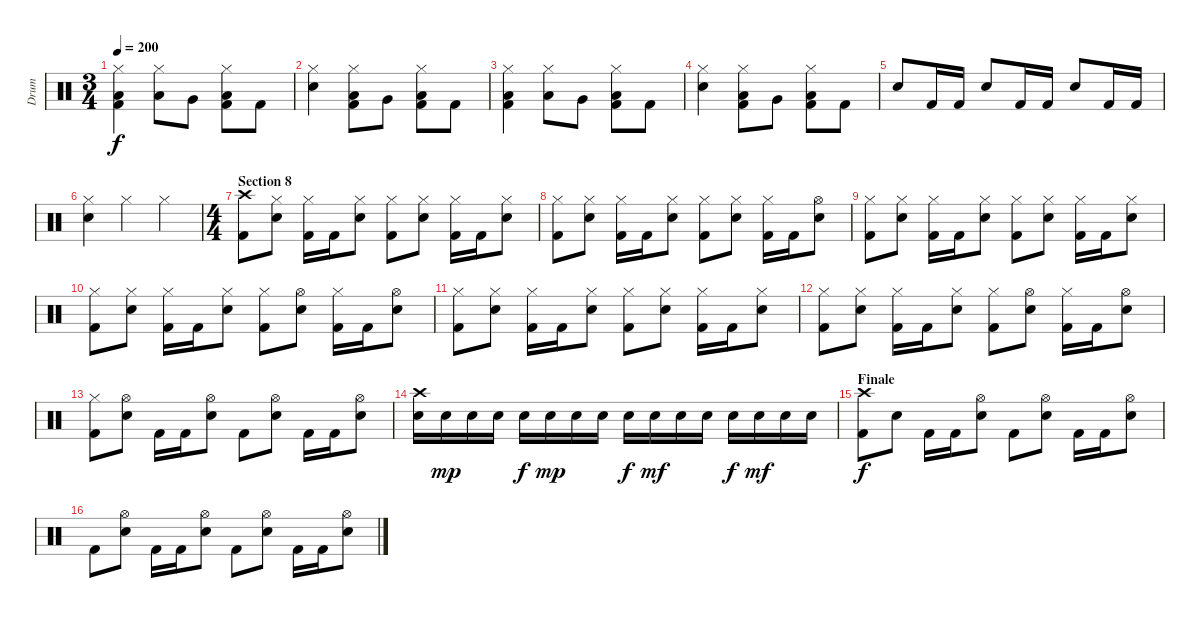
\track ("Drum" "Drum") {instrument percussion}
\staff {score}
\articulation defaults
\ts (3 4)
\tempo 200
\clef neutral
\ks c
("Hi-Hat (closed)" "Low Floor Tom (hit)" "Kick (hit) 2").4{dy f} ("Hi-Hat (closed)" "Low Tom (hit)").8 "Very Low Tom (hit)".8 ("Hi-Hat (closed)" "Low Floor Tom (hit)" "Kick (hit) 2").8 "Kick (hit) 2".8 |
("Hi-Hat (closed)" "Electric Snare (hit)").4 ("Hi-Hat (closed)" "Low Tom (hit)" "Kick (hit) 2").8 "Very Low Tom (hit)".8 ("Hi-Hat (closed)" "Low Floor Tom (hit)" "Kick (hit) 2").8 "Kick (hit) 2".8 |
("Hi-Hat (closed)" "Low Floor Tom (hit)" "Kick (hit) 2").4 ("Hi-Hat (closed)" "Low Tom (hit)").8 "Very Low Tom (hit)".8 ("Hi-Hat (closed)" "Low Floor Tom (hit)" "Kick (hit) 2").8 "Kick (hit) 2".8 |
("Hi-Hat (closed)" "Electric Snare (hit)").4 ("Hi-Hat (closed)" "Low Tom (hit)" "Kick (hit) 2").8 "Very Low Tom (hit)".8 ("Hi-Hat (closed)" "Low Floor Tom (hit)" "Kick (hit) 2").8 "Kick (hit) 2".8 |
"Electric Snare (hit)".8 "Kick (hit) 2".16 "Kick (hit) 2".16 "Electric Snare (hit)".8 "Kick (hit) 2".16 "Kick (hit) 2".16 "Electric Snare (hit)".8 "Kick (hit) 2".16 "Kick (hit) 2".16 |
("Hi-Hat (closed)" "Electric Snare (hit)").4 "Hi-Hat (closed)".4 "Hi-Hat (closed)".4 |
\ts (4 4)
\section ("" "Section 8")
("Crash high (hit)" "Kick (hit) 2").8 ("Hi-Hat (closed)" "Electric Snare (hit)").8 ("Hi-Hat (closed)" "Kick (hit) 2").16 "Kick (hit) 2".16 ("Hi-Hat (closed)" "Electric Snare (hit)").8 ("Hi-Hat (closed)" "Kick (hit) 2").8 ("Hi-Hat (closed)" "Electric Snare (hit)").8 ("Hi-Hat (closed)" "Kick (hit) 2").16 "Kick (hit) 2".16 ("Hi-Hat (closed)" "Electric Snare (hit)").8 |
("Hi-Hat (closed)" "Kick (hit) 2").8 ("Hi-Hat (closed)" "Electric Snare (hit)").8 ("Hi-Hat (closed)" "Kick (hit) 2").16 "Kick (hit) 2".16 ("Hi-Hat (closed)" "Electric Snare (hit)").8 ("Hi-Hat (closed)" "Kick (hit) 2").8 ("Hi-Hat (closed)" "Electric Snare (hit)").8 ("Hi-Hat (closed)" "Kick (hit) 2").16 "Kick (hit) 2".16 ("Hi-Hat (open)" "Electric Snare (hit)").8 |
("Hi-Hat (closed)" "Kick (hit) 2").8 ("Hi-Hat (closed)" "Electric Snare (hit)").8 ("Hi-Hat (closed)" "Kick (hit) 2").16 "Kick (hit) 2".16 ("Hi-Hat (closed)" "Electric Snare (hit)").8 ("Hi-Hat (closed)" "Kick (hit) 2").8 ("Hi-Hat (closed)" "Electric Snare (hit)").8 ("Hi-Hat (closed)" "Kick (hit) 2").16 "Kick (hit) 2".16 ("Hi-Hat (closed)" "Electric Snare (hit)").8 |
("Hi-Hat (closed)" "Kick (hit) 2").8 ("Hi-Hat (closed)" "Electric Snare (hit)").8 ("Hi-Hat (closed)" "Kick (hit) 2").16 "Kick (hit) 2".16 ("Hi-Hat (closed)" "Electric Snare (hit)").8 ("Hi-Hat (closed)" "Kick (hit) 2").8 ("Hi-Hat (open)" "Electric Snare (hit)").8 ("Hi-Hat (closed)" "Kick (hit) 2").16 "Kick (hit) 2".16 ("Hi-Hat (open)" "Electric Snare (hit)").8 |
("Hi-Hat (closed)" "Kick (hit) 2").8 ("Hi-Hat (closed)" "Electric Snare (hit)").8 ("Hi-Hat (closed)" "Kick (hit) 2").16 "Kick (hit) 2".16 ("Hi-Hat (closed)" "Electric Snare (hit)").8 ("Hi-Hat (closed)" "Kick (hit) 2").8 ("Hi-Hat (closed)" "Electric Snare (hit)").8 ("Hi-Hat (closed)" "Kick (hit) 2").16 "Kick (hit) 2".16 ("Hi-Hat (closed)" "Electric Snare (hit)").8 |
("Hi-Hat (closed)" "Kick (hit) 2").8 ("Hi-Hat (closed)" "Electric Snare (hit)").8 ("Hi-Hat (closed)" "Kick (hit) 2").16 "Kick (hit) 2".16 ("Hi-Hat (closed)" "Electric Snare (hit)").8 ("Hi-Hat (closed)" "Kick (hit) 2").8 ("Hi-Hat (open)" "Electric Snare (hit)").8 ("Hi-Hat (closed)" "Kick (hit) 2").16 "Kick (hit) 2".16 ("Hi-Hat (open)" "Electric Snare (hit)").8 |
("Hi-Hat (closed)" "Kick (hit) 2").8 ("Hi-Hat (open)" "Electric Snare (hit)").8 "Kick (hit) 2".16 "Kick (hit) 2".16 ("Hi-Hat (open)" "Electric Snare (hit)").8 "Kick (hit) 2".8 ("Hi-Hat (open)" "Electric Snare (hit)").8 "Kick (hit) 2".16 "Kick (hit) 2".16 ("Hi-Hat (open)" "Electric Snare (hit)").8 |
("Crash high (hit)" "Electric Snare (hit)").16 "Electric Snare (hit)".16{dy mp} "Electric Snare (hit)".16 "Electric Snare (hit)".16 "Electric Snare (hit)".16{dy f} "Electric Snare (hit)".16{dy mp} "Electric Snare (hit)".16 "Electric Snare (hit)".16 "Electric Snare (hit)".16{dy f} "Electric Snare (hit)".16{dy mf} "Electric Snare (hit)".16 "Electric Snare (hit)".16 "Electric Snare (hit)".16{dy f} "Electric Snare (hit)".16{dy mf} "Electric Snare (hit)".16 "Electric Snare (hit)".16 |
\section ("" "Finale")
("Crash high (hit)" "Kick (hit) 2").8{dy f} "Electric Snare (hit)".8 "Kick (hit) 2".16 "Kick (hit) 2".16 ("Hi-Hat (open)" "Electric Snare (hit)").8 "Kick (hit) 2".8 ("Hi-Hat (open)" "Electric Snare (hit)").8 "Kick (hit) 2".16 "Kick (hit) 2".16 ("Hi-Hat (open)" "Electric Snare (hit)").8 |
"Kick (hit) 2".8 ("Hi-Hat (open)" "Electric Snare (hit)").8 "Kick (hit) 2".16 "Kick (hit) 2".16 ("Hi-Hat (open)" "Electric Snare (hit)").8 "Kick (hit) 2".8 ("Hi-Hat (open)" "Electric Snare (hit)").8 "Kick (hit) 2".16 "Kick (hit) 2".16 ("Hi-Hat (open)" "Electric Snare (hit)").8
